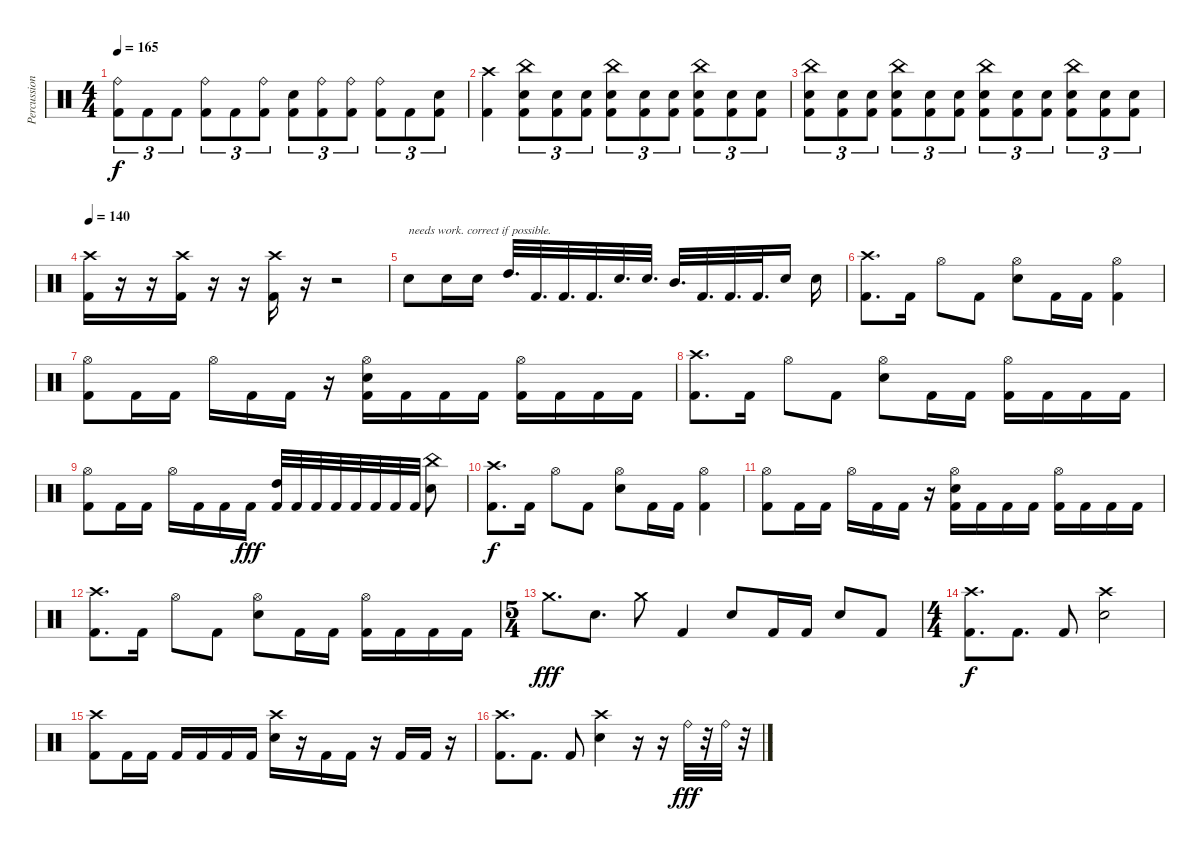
\track ("Percussion" "Percussion") {instrument percussion}
\staff {score}
\articulation defaults
\ts (4 4)
\tempo 165
\clef neutral
\ks c
("Ride (bell)" "Kick (hit) 2").8{tu (3 2) dy f} "Kick (hit) 2".8{tu (3 2)} "Kick (hit) 2".8{tu (3 2)} ("Ride (bell)" "Kick (hit) 2").8{tu (3 2)} "Kick (hit) 2".8{tu (3 2)} ("Ride (bell)" "Kick (hit) 2").8{tu (3 2)} ("Electric Snare (hit)" "Kick (hit) 2").8{tu (3 2)} ("Ride (bell)" "Kick (hit) 2").8{tu (3 2)} ("Ride (bell)" "Kick (hit) 2").8{tu (3 2)} ("Ride (bell)" "Kick (hit) 2").8{tu (3 2)} "Kick (hit) 2".8{tu (3 2)} ("Electric Snare (hit)" "Kick (hit) 2").8{tu (3 2)} |
("Crash high (hit)" "Kick (hit) 2").4 ("China (hit)" "Electric Snare (hit)" "Kick (hit) 2").8{tu (3 2)} ("Electric Snare (hit)" "Kick (hit) 2").8{tu (3 2)} ("Electric Snare (hit)" "Kick (hit) 2").8{tu (3 2)} ("China (hit)" "Electric Snare (hit)" "Kick (hit) 2").8{tu (3 2)} ("Electric Snare (hit)" "Kick (hit) 2").8{tu (3 2)} ("Electric Snare (hit)" "Kick (hit) 2").8{tu (3 2)} ("China (hit)" "Electric Snare (hit)" "Kick (hit) 2").8{tu (3 2)} ("Electric Snare (hit)" "Kick (hit) 2").8{tu (3 2)} ("Electric Snare (hit)" "Kick (hit) 2").8{tu (3 2)} |
("China (hit)" "Electric Snare (hit)" "Kick (hit) 2").8{tu (3 2)} ("Electric Snare (hit)" "Kick (hit) 2").8{tu (3 2)} ("Electric Snare (hit)" "Kick (hit) 2").8{tu (3 2)} ("China (hit)" "Electric Snare (hit)" "Kick (hit) 2").8{tu (3 2)} ("Electric Snare (hit)" "Kick (hit) 2").8{tu (3 2)} ("Electric Snare (hit)" "Kick (hit) 2").8{tu (3 2)} ("China (hit)" "Electric Snare (hit)" "Kick (hit) 2").8{tu (3 2)} ("Electric Snare (hit)" "Kick (hit) 2").8{tu (3 2)} ("Electric Snare (hit)" "Kick (hit) 2").8{tu (3 2)} ("China (hit)" "Electric Snare (hit)" "Kick (hit) 2").8{tu (3 2)} ("Electric Snare (hit)" "Kick (hit) 2").8{tu (3 2)} ("Electric Snare (hit)" "Kick (hit) 2").8{tu (3 2)} |
\tempo 150
\tempo 140
("Crash high (hit)" "Kick (hit) 2").16 r.16 r.16 ("Crash high (hit)" "Kick (hit) 2").16 r.16 r.16 ("Crash high (hit)" "Kick (hit) 2").16 r.16 r.2 |
"Electric Snare (hit)".8{txt "needs work. correct if possible."} "Electric Snare (hit)".16 "Electric Snare (hit)".16 "High Tom (hit)".32{d} "Kick (hit) 2".32{d} "Kick (hit) 2".32{d} "Kick (hit) 2".32{d} "Electric Snare (hit)".32{d} "Electric Snare (hit)".32{d} "Mid Tom (hit)".32{d} "Kick (hit) 2".32{d} "Kick (hit) 2".32{d} "Kick (hit) 2".32{d} "Electric Snare (hit)".16 "Electric Snare (hit)".16 |
("Crash high (hit)" "Kick (hit) 2").8{d} "Kick (hit) 2".16 "Hi-Hat (open)".8 "Kick (hit) 2".8 ("Hi-Hat (open)" "Electric Snare (hit)").8 "Kick (hit) 2".16 "Kick (hit) 2".16 ("Hi-Hat (open)" "Kick (hit) 2").4 |
("Hi-Hat (open)" "Kick (hit) 2").8 "Kick (hit) 2".16 "Kick (hit) 2".16 "Hi-Hat (open)".16 "Kick (hit) 2".16 "Kick (hit) 2".16 r.16 ("Hi-Hat (open)" "Electric Snare (hit)" "Kick (hit) 2").16 "Kick (hit) 2".16 "Kick (hit) 2".16 "Kick (hit) 2".16 ("Hi-Hat (open)" "Kick (hit) 2").16 "Kick (hit) 2".16 "Kick (hit) 2".16 "Kick (hit) 2".16 |
("Crash high (hit)" "Kick (hit) 2").8{d} "Kick (hit) 2".16 "Hi-Hat (open)".8 "Kick (hit) 2".8 ("Hi-Hat (open)" "Electric Snare (hit)").8 "Kick (hit) 2".16 "Kick (hit) 2".16 ("Hi-Hat (open)" "Kick (hit) 2").16 "Kick (hit) 2".16 "Kick (hit) 2".16 "Kick (hit) 2".16 |
("Hi-Hat (open)" "Kick (hit) 2").8 "Kick (hit) 2".16 "Kick (hit) 2".16 "Hi-Hat (open)".16 "Kick (hit) 2".16 "Kick (hit) 2".16 "Kick (hit) 2".16{dy fff} ("High Tom (hit)" "Kick (hit) 2").32 "Kick (hit) 2".32 "Kick (hit) 2".32 "Kick (hit) 2".32 "Kick (hit) 2".32 "Kick (hit) 2".32 "Kick (hit) 2".32 "Kick (hit) 2".32 ("China (hit)" "Electric Snare (hit)").8 |
("Crash high (hit)" "Kick (hit) 2").8{d dy f} "Kick (hit) 2".16 "Hi-Hat (open)".8 "Kick (hit) 2".8 ("Hi-Hat (open)" "Electric Snare (hit)").8 "Kick (hit) 2".16 "Kick (hit) 2".16 ("Hi-Hat (open)" "Kick (hit) 2").4 |
("Hi-Hat (open)" "Kick (hit) 2").8 "Kick (hit) 2".16 "Kick (hit) 2".16 "Hi-Hat (open)".16 "Kick (hit) 2".16 "Kick (hit) 2".16 r.16 ("Hi-Hat (open)" "Electric Snare (hit)" "Kick (hit) 2").16 "Kick (hit) 2".16 "Kick (hit) 2".16 "Kick (hit) 2".16 ("Hi-Hat (open)" "Kick (hit) 2").16 "Kick (hit) 2".16 "Kick (hit) 2".16 "Kick (hit) 2".16 |
("Crash high (hit)" "Kick (hit) 2").8{d} "Kick (hit) 2".16 "Hi-Hat (open)".8 "Kick (hit) 2".8 ("Hi-Hat (open)" "Electric Snare (hit)").8 "Kick (hit) 2".16 "Kick (hit) 2".16 ("Hi-Hat (open)" "Kick (hit) 2").16 "Kick (hit) 2".16 "Kick (hit) 2".16 "Kick (hit) 2".16 |
\ts (5 4)
"Crash medium (hit)".8{d dy fff} "Electric Snare (hit)".8{d} "Crash medium (hit)".8 "Kick (hit) 2".4 "Electric Snare (hit)".8 "Kick (hit) 2".16 "Kick (hit) 2".16 "Electric Snare (hit)".8 "Kick (hit) 2".8 |
\ts (4 4)
("Crash high (hit)" "Kick (hit) 2").8{d dy f} "Kick (hit) 2".8{d} "Kick (hit) 2".8 ("Crash high (hit)" "Electric Snare (hit)").2 |
("Crash high (hit)" "Kick (hit) 2").8 "Kick (hit) 2".16 "Kick (hit) 2".16 "Kick (hit) 2".16 "Kick (hit) 2".16 "Kick (hit) 2".16 "Kick (hit) 2".16 ("Crash high (hit)" "Electric Snare (hit)").16 r.16 "Kick (hit) 2".16 "Kick (hit) 2".16 r.16 "Kick (hit) 2".16 "Kick (hit) 2".16 r.16 |
("Crash high (hit)" "Kick (hit) 2").8{d} "Kick (hit) 2".8{d} "Kick (hit) 2".8 ("Crash high (hit)" "Electric Snare (hit)").4 r.16 r.16 "Ride (bell)".32{dy fff} r.32 "Ride (bell)".32 r.32
